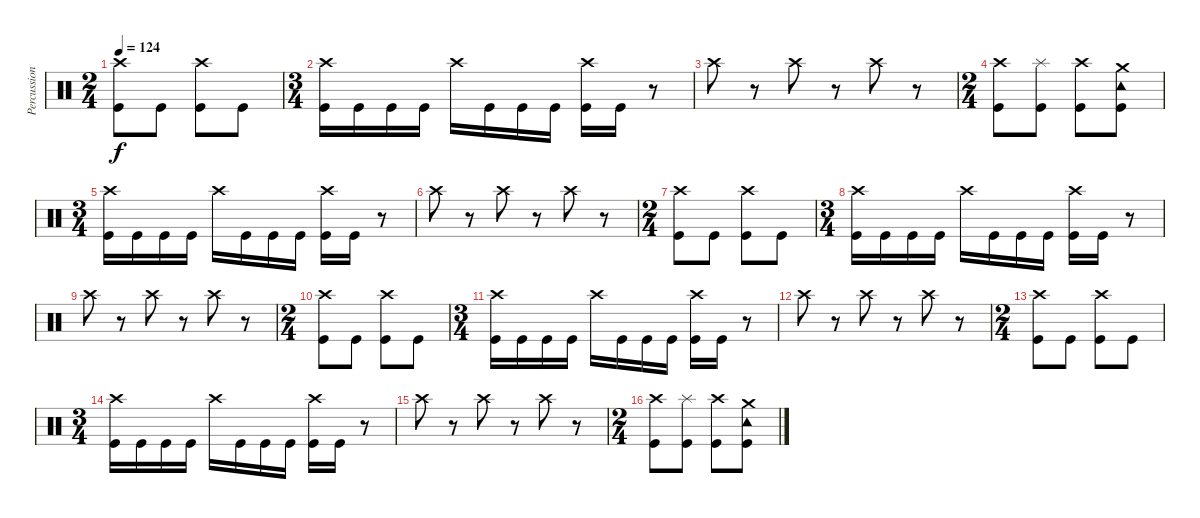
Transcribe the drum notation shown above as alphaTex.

\track ("Percussion" "Percussion") {instrument percussion}
\staff {score}
\articulation defaults
\ts (2 4)
\tempo 124
\clef neutral
\ks c
("Crash high (hit)" "Kick (hit)").8{dy f} "Kick (hit)".8 ("Crash high (hit)" "Kick (hit)").8 "Kick (hit)".8 |
\ts (3 4)
("Crash high (hit)" "Kick (hit)").16 "Kick (hit)".16 "Kick (hit)".16 "Kick (hit)".16 "Crash high (hit)".16 "Kick (hit)".16 "Kick (hit)".16 "Kick (hit)".16 ("Crash high (hit)" "Kick (hit)").16 "Kick (hit)".16 r.8 |
"Crash high (hit)".8 r.8 "Crash high (hit)".8 r.8 "Crash high (hit)".8 r.8 |
\ts (2 4)
("Crash high (hit)" "Kick (hit)").8 ("Splash (hit)" "Kick (hit)").8 ("Crash high (hit)" "Kick (hit)").8 ("Tambourine (hit)" "Crash medium (hit)" "Kick (hit)").8 |
\ts (3 4)
("Crash high (hit)" "Kick (hit)").16 "Kick (hit)".16 "Kick (hit)".16 "Kick (hit)".16 "Crash high (hit)".16 "Kick (hit)".16 "Kick (hit)".16 "Kick (hit)".16 ("Crash high (hit)" "Kick (hit)").16 "Kick (hit)".16 r.8 |
"Crash high (hit)".8 r.8 "Crash high (hit)".8 r.8 "Crash high (hit)".8 r.8 |
\ts (2 4)
("Crash high (hit)" "Kick (hit)").8 "Kick (hit)".8 ("Crash high (hit)" "Kick (hit)").8 "Kick (hit)".8 |
\ts (3 4)
("Crash high (hit)" "Kick (hit)").16 "Kick (hit)".16 "Kick (hit)".16 "Kick (hit)".16 "Crash high (hit)".16 "Kick (hit)".16 "Kick (hit)".16 "Kick (hit)".16 ("Crash high (hit)" "Kick (hit)").16 "Kick (hit)".16 r.8 |
"Crash high (hit)".8 r.8 "Crash high (hit)".8 r.8 "Crash high (hit)".8 r.8 |
\ts (2 4)
("Crash high (hit)" "Kick (hit)").8 "Kick (hit)".8 ("Crash high (hit)" "Kick (hit)").8 "Kick (hit)".8 |
\ts (3 4)
("Crash high (hit)" "Kick (hit)").16 "Kick (hit)".16 "Kick (hit)".16 "Kick (hit)".16 "Crash high (hit)".16 "Kick (hit)".16 "Kick (hit)".16 "Kick (hit)".16 ("Crash high (hit)" "Kick (hit)").16 "Kick (hit)".16 r.8 |
"Crash high (hit)".8 r.8 "Crash high (hit)".8 r.8 "Crash high (hit)".8 r.8 |
\ts (2 4)
("Crash high (hit)" "Kick (hit)").8 "Kick (hit)".8 ("Crash high (hit)" "Kick (hit)").8 "Kick (hit)".8 |
\ts (3 4)
("Crash high (hit)" "Kick (hit)").16 "Kick (hit)".16 "Kick (hit)".16 "Kick (hit)".16 "Crash high (hit)".16 "Kick (hit)".16 "Kick (hit)".16 "Kick (hit)".16 ("Crash high (hit)" "Kick (hit)").16 "Kick (hit)".16 r.8 |
"Crash high (hit)".8 r.8 "Crash high (hit)".8 r.8 "Crash high (hit)".8 r.8 |
\ts (2 4)
("Crash high (hit)" "Kick (hit)").8 ("Splash (hit)" "Kick (hit)").8 ("Crash high (hit)" "Kick (hit)").8 ("Tambourine (hit)" "Crash medium (hit)" "Kick (hit)").8
